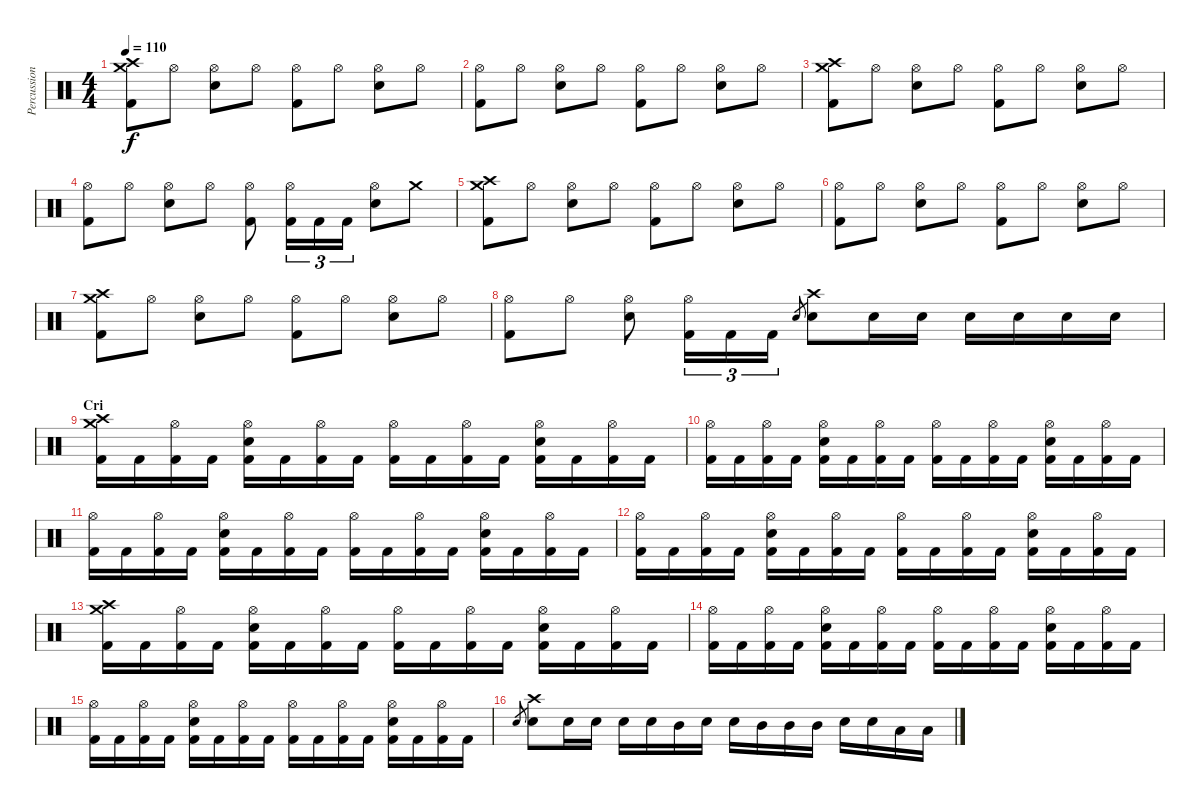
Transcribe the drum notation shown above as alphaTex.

\track ("Percussions" "Percussion") {instrument percussion}
\staff {score}
\articulation defaults
\ts (4 4)
\tempo 110
\clef neutral
\ks c
("Crash high (hit)" "Crash medium (hit)" "Kick (hit) 2").8{dy f} "Hi-Hat (open)".8 ("Hi-Hat (open)" "Electric Snare (hit)").8 "Hi-Hat (open)".8 ("Hi-Hat (open)" "Kick (hit) 2").8 "Hi-Hat (open)".8 ("Hi-Hat (open)" "Electric Snare (hit)").8 "Hi-Hat (open)".8 |
("Hi-Hat (open)" "Kick (hit) 2").8 "Hi-Hat (open)".8 ("Hi-Hat (open)" "Electric Snare (hit)").8 "Hi-Hat (open)".8 ("Hi-Hat (open)" "Kick (hit) 2").8 "Hi-Hat (open)".8 ("Hi-Hat (open)" "Electric Snare (hit)").8 "Hi-Hat (open)".8 |
("Crash high (hit)" "Crash medium (hit)" "Kick (hit) 2").8 "Hi-Hat (open)".8 ("Hi-Hat (open)" "Electric Snare (hit)").8 "Hi-Hat (open)".8 ("Hi-Hat (open)" "Kick (hit) 2").8 "Hi-Hat (open)".8 ("Hi-Hat (open)" "Electric Snare (hit)").8 "Hi-Hat (open)".8 |
("Hi-Hat (open)" "Kick (hit) 2").8 "Hi-Hat (open)".8 ("Hi-Hat (open)" "Electric Snare (hit)").8 "Hi-Hat (open)".8 ("Hi-Hat (open)" "Kick (hit) 2").8 ("Hi-Hat (open)" "Kick (hit) 2").16{tu (3 2)} "Kick (hit) 2".16{tu (3 2)} "Kick (hit) 2".16{tu (3 2)} ("Hi-Hat (open)" "Electric Snare (hit)").8 "Crash medium (hit)".8 |
("Crash high (hit)" "Crash medium (hit)" "Kick (hit) 2").8 "Hi-Hat (open)".8 ("Hi-Hat (open)" "Electric Snare (hit)").8 "Hi-Hat (open)".8 ("Hi-Hat (open)" "Kick (hit) 2").8 "Hi-Hat (open)".8 ("Hi-Hat (open)" "Electric Snare (hit)").8 "Hi-Hat (open)".8 |
("Hi-Hat (open)" "Kick (hit) 2").8 "Hi-Hat (open)".8 ("Hi-Hat (open)" "Electric Snare (hit)").8 "Hi-Hat (open)".8 ("Hi-Hat (open)" "Kick (hit) 2").8 "Hi-Hat (open)".8 ("Hi-Hat (open)" "Electric Snare (hit)").8 "Hi-Hat (open)".8 |
("Crash high (hit)" "Crash medium (hit)" "Kick (hit) 2").8 "Hi-Hat (open)".8 ("Hi-Hat (open)" "Electric Snare (hit)").8 "Hi-Hat (open)".8 ("Hi-Hat (open)" "Kick (hit) 2").8 "Hi-Hat (open)".8 ("Hi-Hat (open)" "Electric Snare (hit)").8 "Hi-Hat (open)".8 |
("Hi-Hat (open)" "Kick (hit) 2").8 "Hi-Hat (open)".8 ("Hi-Hat (open)" "Electric Snare (hit)").8 ("Hi-Hat (open)" "Kick (hit) 2").16{tu (3 2)} "Kick (hit) 2".16{tu (3 2)} "Kick (hit) 2".16{tu (3 2)} "Electric Snare (hit)".8{gr} ("Crash high (hit)" "Electric Snare (hit)").8 "Electric Snare (hit)".16 "Electric Snare (hit)".16 "Electric Snare (hit)".16 "Electric Snare (hit)".16 "Electric Snare (hit)".16 "Electric Snare (hit)".16 |
\section ("" "Cri")
("Crash high (hit)" "Crash medium (hit)" "Kick (hit) 2").16 "Kick (hit) 2".16 ("Hi-Hat (open)" "Kick (hit) 2").16 "Kick (hit) 2".16 ("Hi-Hat (open)" "Electric Snare (hit)" "Kick (hit) 2").16 "Kick (hit) 2".16 ("Hi-Hat (open)" "Kick (hit) 2").16 "Kick (hit) 2".16 ("Hi-Hat (open)" "Kick (hit) 2").16 "Kick (hit) 2".16 ("Hi-Hat (open)" "Kick (hit) 2").16 "Kick (hit) 2".16 ("Hi-Hat (open)" "Electric Snare (hit)" "Kick (hit) 2").16 "Kick (hit) 2".16 ("Hi-Hat (open)" "Kick (hit) 2").16 "Kick (hit) 2".16 |
("Hi-Hat (open)" "Kick (hit) 2").16 "Kick (hit) 2".16 ("Hi-Hat (open)" "Kick (hit) 2").16 "Kick (hit) 2".16 ("Hi-Hat (open)" "Electric Snare (hit)" "Kick (hit) 2").16 "Kick (hit) 2".16 ("Hi-Hat (open)" "Kick (hit) 2").16 "Kick (hit) 2".16 ("Hi-Hat (open)" "Kick (hit) 2").16 "Kick (hit) 2".16 ("Hi-Hat (open)" "Kick (hit) 2").16 "Kick (hit) 2".16 ("Hi-Hat (open)" "Electric Snare (hit)" "Kick (hit) 2").16 "Kick (hit) 2".16 ("Hi-Hat (open)" "Kick (hit) 2").16 "Kick (hit) 2".16 |
("Hi-Hat (open)" "Kick (hit) 2").16 "Kick (hit) 2".16 ("Hi-Hat (open)" "Kick (hit) 2").16 "Kick (hit) 2".16 ("Hi-Hat (open)" "Electric Snare (hit)" "Kick (hit) 2").16 "Kick (hit) 2".16 ("Hi-Hat (open)" "Kick (hit) 2").16 "Kick (hit) 2".16 ("Hi-Hat (open)" "Kick (hit) 2").16 "Kick (hit) 2".16 ("Hi-Hat (open)" "Kick (hit) 2").16 "Kick (hit) 2".16 ("Hi-Hat (open)" "Electric Snare (hit)" "Kick (hit) 2").16 "Kick (hit) 2".16 ("Hi-Hat (open)" "Kick (hit) 2").16 "Kick (hit) 2".16 |
("Hi-Hat (open)" "Kick (hit) 2").16 "Kick (hit) 2".16 ("Hi-Hat (open)" "Kick (hit) 2").16 "Kick (hit) 2".16 ("Hi-Hat (open)" "Electric Snare (hit)" "Kick (hit) 2").16 "Kick (hit) 2".16 ("Hi-Hat (open)" "Kick (hit) 2").16 "Kick (hit) 2".16 ("Hi-Hat (open)" "Kick (hit) 2").16 "Kick (hit) 2".16 ("Hi-Hat (open)" "Kick (hit) 2").16 "Kick (hit) 2".16 ("Hi-Hat (open)" "Electric Snare (hit)" "Kick (hit) 2").16 "Kick (hit) 2".16 ("Hi-Hat (open)" "Kick (hit) 2").16 "Kick (hit) 2".16 |
("Crash high (hit)" "Crash medium (hit)" "Kick (hit) 2").16 "Kick (hit) 2".16 ("Hi-Hat (open)" "Kick (hit) 2").16 "Kick (hit) 2".16 ("Hi-Hat (open)" "Electric Snare (hit)" "Kick (hit) 2").16 "Kick (hit) 2".16 ("Hi-Hat (open)" "Kick (hit) 2").16 "Kick (hit) 2".16 ("Hi-Hat (open)" "Kick (hit) 2").16 "Kick (hit) 2".16 ("Hi-Hat (open)" "Kick (hit) 2").16 "Kick (hit) 2".16 ("Hi-Hat (open)" "Electric Snare (hit)" "Kick (hit) 2").16 "Kick (hit) 2".16 ("Hi-Hat (open)" "Kick (hit) 2").16 "Kick (hit) 2".16 |
("Hi-Hat (open)" "Kick (hit) 2").16 "Kick (hit) 2".16 ("Hi-Hat (open)" "Kick (hit) 2").16 "Kick (hit) 2".16 ("Hi-Hat (open)" "Electric Snare (hit)" "Kick (hit) 2").16 "Kick (hit) 2".16 ("Hi-Hat (open)" "Kick (hit) 2").16 "Kick (hit) 2".16 ("Hi-Hat (open)" "Kick (hit) 2").16 "Kick (hit) 2".16 ("Hi-Hat (open)" "Kick (hit) 2").16 "Kick (hit) 2".16 ("Hi-Hat (open)" "Electric Snare (hit)" "Kick (hit) 2").16 "Kick (hit) 2".16 ("Hi-Hat (open)" "Kick (hit) 2").16 "Kick (hit) 2".16 |
("Hi-Hat (open)" "Kick (hit) 2").16 "Kick (hit) 2".16 ("Hi-Hat (open)" "Kick (hit) 2").16 "Kick (hit) 2".16 ("Hi-Hat (open)" "Electric Snare (hit)" "Kick (hit) 2").16 "Kick (hit) 2".16 ("Hi-Hat (open)" "Kick (hit) 2").16 "Kick (hit) 2".16 ("Hi-Hat (open)" "Kick (hit) 2").16 "Kick (hit) 2".16 ("Hi-Hat (open)" "Kick (hit) 2").16 "Kick (hit) 2".16 ("Hi-Hat (open)" "Electric Snare (hit)" "Kick (hit) 2").16 "Kick (hit) 2".16 ("Hi-Hat (open)" "Kick (hit) 2").16 "Kick (hit) 2".16 |
"Electric Snare (hit)".8{gr} ("Crash high (hit)" "Electric Snare (hit)").8 "Electric Snare (hit)".16 "Electric Snare (hit)".16 "Electric Snare (hit)".16 "Electric Snare (hit)".16 "Mid Tom (hit)".16 "Electric Snare (hit)".16 "Electric Snare (hit)".16 "Mid Tom (hit)".16 "Mid Tom (hit)".16 "Mid Tom (hit)".16 "Electric Snare (hit)".16 "Electric Snare (hit)".16 "Low Tom (hit)".16 "Low Tom (hit)".16
